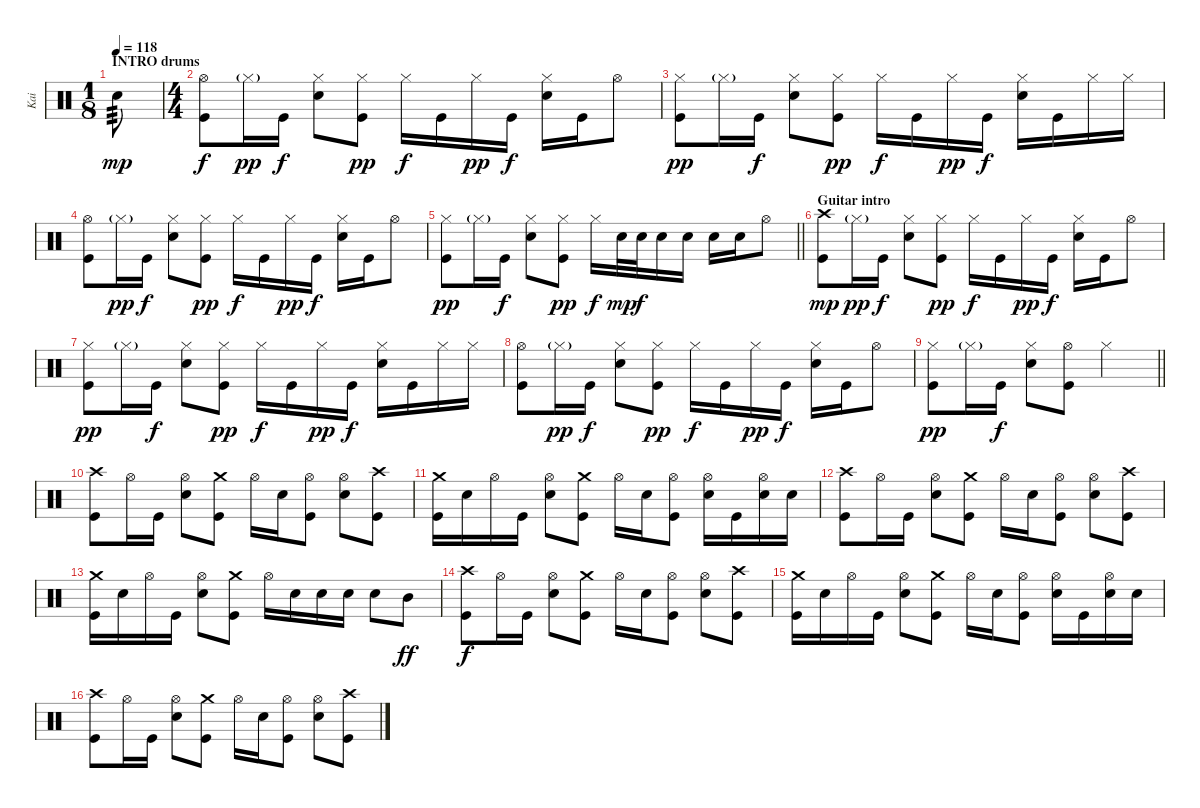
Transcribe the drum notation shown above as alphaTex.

\track ("Kai" "Kai") {instrument percussion}
\staff {score}
\articulation defaults
\ts (1 8)
\section ("" "INTRO drums")
\tempo 118
\clef neutral
\ks c "Snare (hit) 2".8{tp 3 dy mp}
|
\ts (4 4)
("Kick (hit)" "Hi-Hat (open)").8{dy f} "Hi-Hat (closed)"{g}.16{dy pp} "Kick (hit)".16{dy f} ("Hi-Hat (closed)" "Snare (hit) 2").8 ("Hi-Hat (closed)" "Kick (hit)").8{dy pp} "Hi-Hat (closed)".16{dy f} "Kick (hit)".16 "Hi-Hat (closed)".16{dy pp} "Kick (hit)".16{dy f} ("Hi-Hat (closed)" "Snare (hit) 2").16 "Kick (hit)".16 "Hi-Hat (open)".8 |
("Hi-Hat (closed)" "Kick (hit)").8{dy pp} "Hi-Hat (closed)"{g}.16 "Kick (hit)".16{dy f} ("Hi-Hat (closed)" "Snare (hit) 2").8 ("Hi-Hat (closed)" "Kick (hit)").8{dy pp} "Hi-Hat (closed)".16{dy f} "Kick (hit)".16 "Hi-Hat (closed)".16{dy pp} "Kick (hit)".16{dy f} ("Hi-Hat (closed)" "Snare (hit) 2").16 "Kick (hit)".16 "Hi-Hat (closed)".16 "Hi-Hat (closed)".16 |
("Kick (hit)" "Hi-Hat (open)").8 "Hi-Hat (closed)"{g}.16{dy pp} "Kick (hit)".16{dy f} ("Hi-Hat (closed)" "Snare (hit) 2").8 ("Hi-Hat (closed)" "Kick (hit)").8{dy pp} "Hi-Hat (closed)".16{dy f} "Kick (hit)".16 "Hi-Hat (closed)".16{dy pp} "Kick (hit)".16{dy f} ("Hi-Hat (closed)" "Snare (hit) 2").16 "Kick (hit)".16 "Hi-Hat (open)".8 |
\barLineRight lightlight
("Hi-Hat (closed)" "Kick (hit)").8{dy pp} "Hi-Hat (closed)"{g}.16 "Kick (hit)".16{dy f} ("Hi-Hat (closed)" "Snare (hit) 2").8 ("Hi-Hat (closed)" "Kick (hit)").8{dy pp} "Hi-Hat (closed)".16{dy f} "Snare (hit) 2".32{dy mp} "Snare (hit) 2".32{dy f} "Snare (hit) 2".16 "Snare (hit) 2".16 "Snare (hit) 2".16 "Snare (hit) 2".16 "Hi-Hat (open)".8 |
\section ("" "Guitar intro")
("Kick (hit)" "Crash high (hit)").8{dy mp} "Hi-Hat (closed)"{g}.16{dy pp} "Kick (hit)".16{dy f} ("Hi-Hat (closed)" "Snare (hit) 2").8 ("Hi-Hat (closed)" "Kick (hit)").8{dy pp} "Hi-Hat (closed)".16{dy f} "Kick (hit)".16 "Hi-Hat (closed)".16{dy pp} "Kick (hit)".16{dy f} ("Hi-Hat (closed)" "Snare (hit) 2").16 "Kick (hit)".16 "Hi-Hat (open)".8 |
("Hi-Hat (closed)" "Kick (hit)").8{dy pp} "Hi-Hat (closed)"{g}.16 "Kick (hit)".16{dy f} ("Hi-Hat (closed)" "Snare (hit) 2").8 ("Hi-Hat (closed)" "Kick (hit)").8{dy pp} "Hi-Hat (closed)".16{dy f} "Kick (hit)".16 "Hi-Hat (closed)".16{dy pp} "Kick (hit)".16{dy f} ("Hi-Hat (closed)" "Snare (hit) 2").16 "Kick (hit)".16 "Hi-Hat (closed)".16 "Hi-Hat (closed)".16 |
("Kick (hit)" "Hi-Hat (open)").8 "Hi-Hat (closed)"{g}.16{dy pp} "Kick (hit)".16{dy f} ("Hi-Hat (closed)" "Snare (hit) 2").8 ("Hi-Hat (closed)" "Kick (hit)").8{dy pp} "Hi-Hat (closed)".16{dy f} "Kick (hit)".16 "Hi-Hat (closed)".16{dy pp} "Kick (hit)".16{dy f} ("Hi-Hat (closed)" "Snare (hit) 2").16 "Kick (hit)".16 "Hi-Hat (open)".8 |
\barLineRight lightlight
("Hi-Hat (closed)" "Kick (hit)").8{dy pp} "Hi-Hat (closed)"{g}.16 "Kick (hit)".16{dy f} ("Hi-Hat (closed)" "Snare (hit) 2").8 ("Kick (hit)" "Hi-Hat (open)").8 "Hi-Hat (closed)".2 |
\section ("" "")
("Kick (hit)" "Crash high (hit)").8 "Hi-Hat (open)".16 "Kick (hit)".16 ("Hi-Hat (open)" "Snare (hit) 2").8 ("Crash medium (hit)" "Kick (hit)").8 "Hi-Hat (open)".16 "Snare (hit) 2".16 ("Kick (hit)" "Hi-Hat (open)").8 ("Hi-Hat (open)" "Snare (hit) 2").8 ("Kick (hit)" "Crash high (hit)").8 |
("Kick (hit)" "Crash medium (hit)").16 "Snare (hit) 2".16 "Hi-Hat (open)".16 "Kick (hit)".16 ("Snare (hit) 2" "Hi-Hat (open)").8 ("Kick (hit)" "Crash medium (hit)").8 "Hi-Hat (open)".16 "Snare (hit) 2".16 ("Kick (hit)" "Hi-Hat (open)").8 ("Snare (hit) 2" "Hi-Hat (open)").16 "Kick (hit)".16 ("Snare (hit) 2" "Hi-Hat (open)").16 "Snare (hit) 2".16 |
("Kick (hit)" "Crash high (hit)").8 "Hi-Hat (open)".16 "Kick (hit)".16 ("Hi-Hat (open)" "Snare (hit) 2").8 ("Crash medium (hit)" "Kick (hit)").8 "Hi-Hat (open)".16 "Snare (hit) 2".16 ("Kick (hit)" "Hi-Hat (open)").8 ("Hi-Hat (open)" "Snare (hit) 2").8 ("Kick (hit)" "Crash high (hit)").8 |
("Kick (hit)" "Crash medium (hit)").16 "Snare (hit) 2".16 "Hi-Hat (open)".16 "Kick (hit)".16 ("Snare (hit) 2" "Hi-Hat (open)").8 ("Kick (hit)" "Crash medium (hit)").8 "Hi-Hat (open)".16 "Snare (hit) 2".16 "Snare (hit) 2".16 "Snare (hit) 2".16 "Snare (hit) 2".8 "Mid Tom (hit)".8{dy ff} |
("Kick (hit)" "Crash high (hit)").8{dy f} "Hi-Hat (open)".16 "Kick (hit)".16 ("Hi-Hat (open)" "Snare (hit) 2").8 ("Crash medium (hit)" "Kick (hit)").8 "Hi-Hat (open)".16 "Snare (hit) 2".16 ("Kick (hit)" "Hi-Hat (open)").8 ("Hi-Hat (open)" "Snare (hit) 2").8 ("Kick (hit)" "Crash high (hit)").8 |
("Kick (hit)" "Crash medium (hit)").16 "Snare (hit) 2".16 "Hi-Hat (open)".16 "Kick (hit)".16 ("Snare (hit) 2" "Hi-Hat (open)").8 ("Kick (hit)" "Crash medium (hit)").8 "Hi-Hat (open)".16 "Snare (hit) 2".16 ("Kick (hit)" "Hi-Hat (open)").8 ("Snare (hit) 2" "Hi-Hat (open)").16 "Kick (hit)".16 ("Snare (hit) 2" "Hi-Hat (open)").16 "Snare (hit) 2".16 |
("Kick (hit)" "Crash high (hit)").8 "Hi-Hat (open)".16 "Kick (hit)".16 ("Hi-Hat (open)" "Snare (hit) 2").8 ("Crash medium (hit)" "Kick (hit)").8 "Hi-Hat (open)".16 "Snare (hit) 2".16 ("Kick (hit)" "Hi-Hat (open)").8 ("Hi-Hat (open)" "Snare (hit) 2").8 ("Kick (hit)" "Crash high (hit)").8
